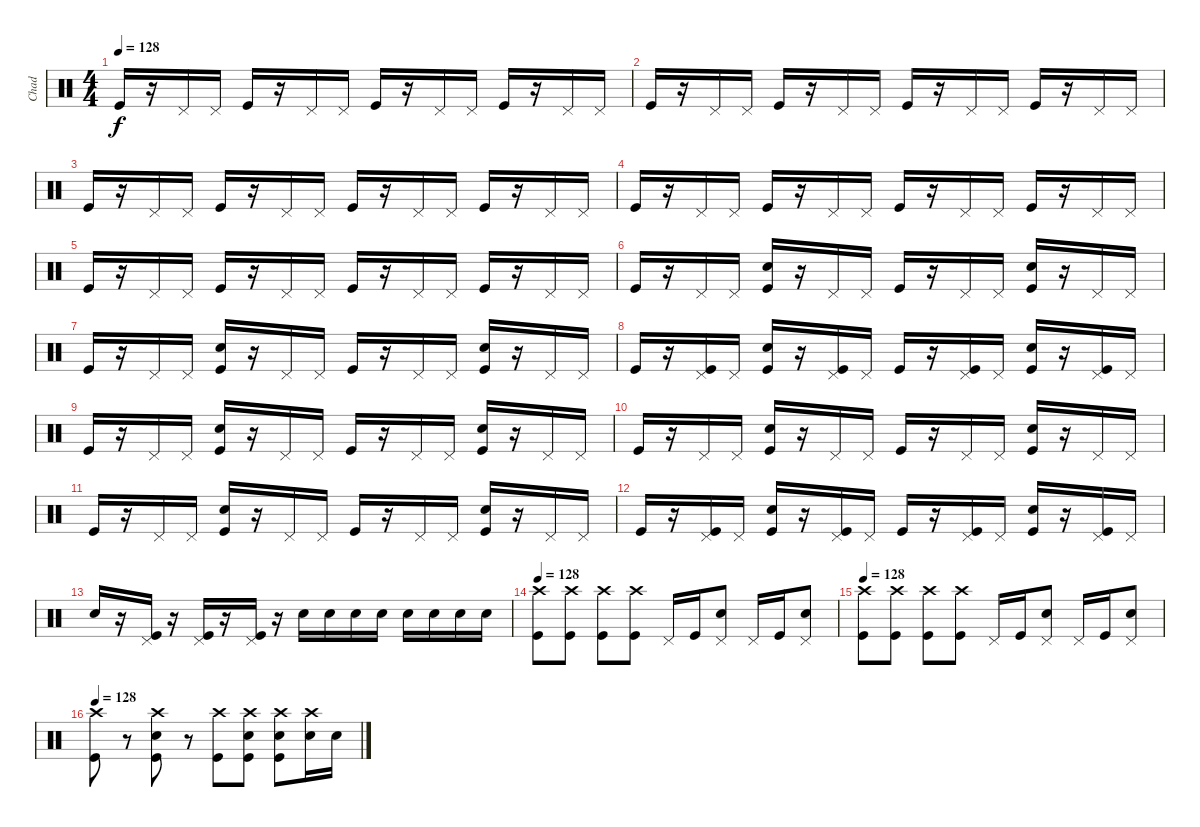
\track ("Chad" "Chad") {instrument percussion}
\staff {score}
\articulation defaults
\ts (4 4)
\tempo 128
\clef neutral
\ks c "Kick (hit)".16{dy f}
r.16 "Pedal Hi-Hat (hit)".16 "Pedal Hi-Hat (hit)".16 "Kick (hit)".16 r.16 "Pedal Hi-Hat (hit)".16 "Pedal Hi-Hat (hit)".16 "Kick (hit)".16 r.16 "Pedal Hi-Hat (hit)".16 "Pedal Hi-Hat (hit)".16 "Kick (hit)".16 r.16 "Pedal Hi-Hat (hit)".16 "Pedal Hi-Hat (hit)".16 |
"Kick (hit)".16 r.16 "Pedal Hi-Hat (hit)".16 "Pedal Hi-Hat (hit)".16 "Kick (hit)".16 r.16 "Pedal Hi-Hat (hit)".16 "Pedal Hi-Hat (hit)".16 "Kick (hit)".16 r.16 "Pedal Hi-Hat (hit)".16 "Pedal Hi-Hat (hit)".16 "Kick (hit)".16 r.16 "Pedal Hi-Hat (hit)".16 "Pedal Hi-Hat (hit)".16 |
"Kick (hit)".16 r.16 "Pedal Hi-Hat (hit)".16 "Pedal Hi-Hat (hit)".16 "Kick (hit)".16 r.16 "Pedal Hi-Hat (hit)".16 "Pedal Hi-Hat (hit)".16 "Kick (hit)".16 r.16 "Pedal Hi-Hat (hit)".16 "Pedal Hi-Hat (hit)".16 "Kick (hit)".16 r.16 "Pedal Hi-Hat (hit)".16 "Pedal Hi-Hat (hit)".16 |
"Kick (hit)".16 r.16 "Pedal Hi-Hat (hit)".16 "Pedal Hi-Hat (hit)".16 "Kick (hit)".16 r.16 "Pedal Hi-Hat (hit)".16 "Pedal Hi-Hat (hit)".16 "Kick (hit)".16 r.16 "Pedal Hi-Hat (hit)".16 "Pedal Hi-Hat (hit)".16 "Kick (hit)".16 r.16 "Pedal Hi-Hat (hit)".16 "Pedal Hi-Hat (hit)".16 |
"Kick (hit)".16 r.16 "Pedal Hi-Hat (hit)".16 "Pedal Hi-Hat (hit)".16 "Kick (hit)".16 r.16 "Pedal Hi-Hat (hit)".16 "Pedal Hi-Hat (hit)".16 "Kick (hit)".16 r.16 "Pedal Hi-Hat (hit)".16 "Pedal Hi-Hat (hit)".16 "Kick (hit)".16 r.16 "Pedal Hi-Hat (hit)".16 "Pedal Hi-Hat (hit)".16 |
"Kick (hit)".16 r.16 "Pedal Hi-Hat (hit)".16 "Pedal Hi-Hat (hit)".16 ("Electric Snare (hit)" "Kick (hit)").16 r.16 "Pedal Hi-Hat (hit)".16 "Pedal Hi-Hat (hit)".16 "Kick (hit)".16 r.16 "Pedal Hi-Hat (hit)".16 "Pedal Hi-Hat (hit)".16 ("Electric Snare (hit)" "Kick (hit)").16 r.16 "Pedal Hi-Hat (hit)".16 "Pedal Hi-Hat (hit)".16 |
"Kick (hit)".16 r.16 "Pedal Hi-Hat (hit)".16 "Pedal Hi-Hat (hit)".16 ("Electric Snare (hit)" "Kick (hit)").16 r.16 "Pedal Hi-Hat (hit)".16 "Pedal Hi-Hat (hit)".16 "Kick (hit)".16 r.16 "Pedal Hi-Hat (hit)".16 "Pedal Hi-Hat (hit)".16 ("Electric Snare (hit)" "Kick (hit)").16 r.16 "Pedal Hi-Hat (hit)".16 "Pedal Hi-Hat (hit)".16 |
"Kick (hit)".16 r.16 ("Pedal Hi-Hat (hit)" "Kick (hit)").16 "Pedal Hi-Hat (hit)".16 ("Electric Snare (hit)" "Kick (hit)").16 r.16 ("Pedal Hi-Hat (hit)" "Kick (hit)").16 "Pedal Hi-Hat (hit)".16 "Kick (hit)".16 r.16 ("Pedal Hi-Hat (hit)" "Kick (hit)").16 "Pedal Hi-Hat (hit)".16 ("Electric Snare (hit)" "Kick (hit)").16 r.16 ("Pedal Hi-Hat (hit)" "Kick (hit)").16 "Pedal Hi-Hat (hit)".16 |
"Kick (hit)".16 r.16 "Pedal Hi-Hat (hit)".16 "Pedal Hi-Hat (hit)".16 ("Electric Snare (hit)" "Kick (hit)").16 r.16 "Pedal Hi-Hat (hit)".16 "Pedal Hi-Hat (hit)".16 "Kick (hit)".16 r.16 "Pedal Hi-Hat (hit)".16 "Pedal Hi-Hat (hit)".16 ("Electric Snare (hit)" "Kick (hit)").16 r.16 "Pedal Hi-Hat (hit)".16 "Pedal Hi-Hat (hit)".16 |
"Kick (hit)".16 r.16 "Pedal Hi-Hat (hit)".16 "Pedal Hi-Hat (hit)".16 ("Electric Snare (hit)" "Kick (hit)").16 r.16 "Pedal Hi-Hat (hit)".16 "Pedal Hi-Hat (hit)".16 "Kick (hit)".16 r.16 "Pedal Hi-Hat (hit)".16 "Pedal Hi-Hat (hit)".16 ("Electric Snare (hit)" "Kick (hit)").16 r.16 "Pedal Hi-Hat (hit)".16 "Pedal Hi-Hat (hit)".16 |
"Kick (hit)".16 r.16 "Pedal Hi-Hat (hit)".16 "Pedal Hi-Hat (hit)".16 ("Electric Snare (hit)" "Kick (hit)").16 r.16 "Pedal Hi-Hat (hit)".16 "Pedal Hi-Hat (hit)".16 "Kick (hit)".16 r.16 "Pedal Hi-Hat (hit)".16 "Pedal Hi-Hat (hit)".16 ("Electric Snare (hit)" "Kick (hit)").16 r.16 "Pedal Hi-Hat (hit)".16 "Pedal Hi-Hat (hit)".16 |
"Kick (hit)".16 r.16 ("Pedal Hi-Hat (hit)" "Kick (hit)").16 "Pedal Hi-Hat (hit)".16 ("Electric Snare (hit)" "Kick (hit)").16 r.16 ("Pedal Hi-Hat (hit)" "Kick (hit)").16 "Pedal Hi-Hat (hit)".16 "Kick (hit)".16 r.16 ("Pedal Hi-Hat (hit)" "Kick (hit)").16 "Pedal Hi-Hat (hit)".16 ("Electric Snare (hit)" "Kick (hit)").16 r.16 ("Pedal Hi-Hat (hit)" "Kick (hit)").16 "Pedal Hi-Hat (hit)".16 |
"Electric Snare (hit)".16 r.16 ("Pedal Hi-Hat (hit)" "Kick (hit)").16 r.16 ("Pedal Hi-Hat (hit)" "Kick (hit)").16 r.16 ("Pedal Hi-Hat (hit)" "Kick (hit)").16 r.16 "Electric Snare (hit)".16 "Electric Snare (hit)".16 "Electric Snare (hit)".16 "Electric Snare (hit)".16 "Electric Snare (hit)".16 "Electric Snare (hit)".16 "Electric Snare (hit)".16 "Electric Snare (hit)".16 |
\tempo 128
("Crash high (hit)" "Kick (hit)").8 ("Crash high (hit)" "Kick (hit)").8 ("Crash high (hit)" "Kick (hit)").8 ("Crash high (hit)" "Kick (hit)").8 "Pedal Hi-Hat (hit)".16 "Kick (hit)".16 ("Electric Snare (hit)" "Pedal Hi-Hat (hit)").8 "Pedal Hi-Hat (hit)".16 "Kick (hit)".16 ("Electric Snare (hit)" "Pedal Hi-Hat (hit)").8 |
\tempo 128
("Crash high (hit)" "Kick (hit)").8 ("Crash high (hit)" "Kick (hit)").8 ("Crash high (hit)" "Kick (hit)").8 ("Crash high (hit)" "Kick (hit)").8 "Pedal Hi-Hat (hit)".16 "Kick (hit)".16 ("Electric Snare (hit)" "Pedal Hi-Hat (hit)").8 "Pedal Hi-Hat (hit)".16 "Kick (hit)".16 ("Electric Snare (hit)" "Pedal Hi-Hat (hit)").8 |
\tempo 128
("Crash high (hit)" "Kick (hit)").8 r.8 ("Electric Snare (hit)" "Crash high (hit)" "Kick (hit)").8 r.8 ("Crash high (hit)" "Kick (hit)").8 ("Electric Snare (hit)" "Crash high (hit)" "Kick (hit)").8 ("Electric Snare (hit)" "Crash high (hit)" "Kick (hit)").8 ("Electric Snare (hit)" "Crash high (hit)").16 "Electric Snare (hit)".16
